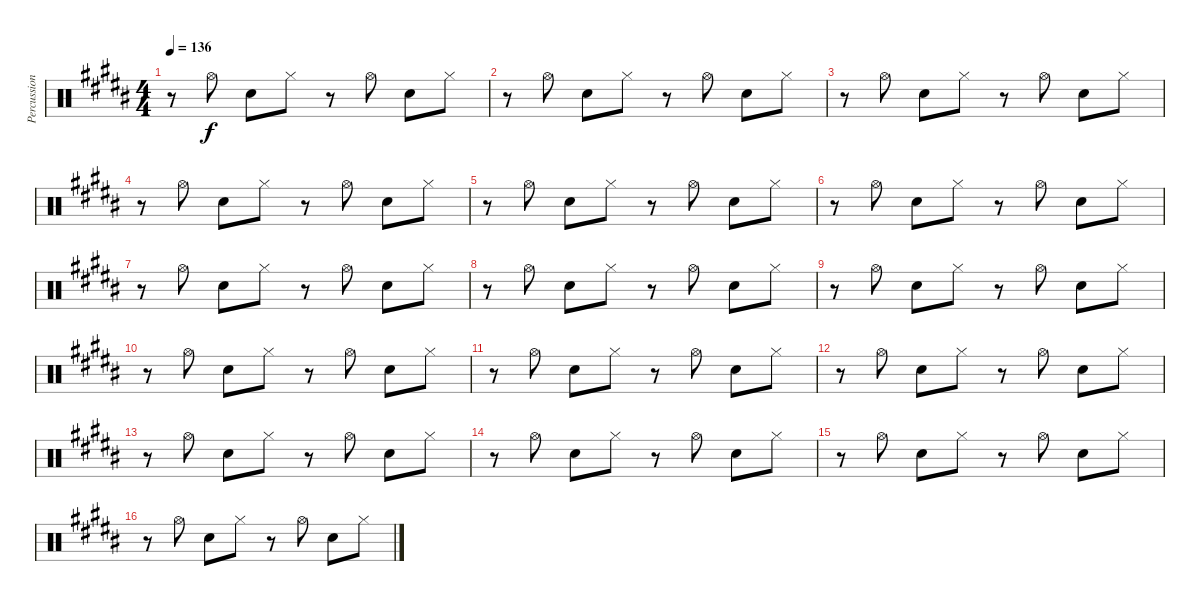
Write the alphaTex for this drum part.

\track ("Percussion" "Percussion") {instrument percussion}
\staff {score}
\articulation defaults
\ts (4 4)
\tempo 136
\clef neutral
\ks g#minor
r.8{dy f} "Hi-Hat (open)".8 "Snare (hit) 2".8 "Hi-Hat (closed)".8 r.8 "Hi-Hat (open)".8 "Snare (hit) 2".8 "Hi-Hat (closed)".8 |
r.8 "Hi-Hat (open)".8 "Snare (hit) 2".8 "Hi-Hat (closed)".8 r.8 "Hi-Hat (open)".8 "Snare (hit) 2".8 "Hi-Hat (closed)".8 |
r.8 "Hi-Hat (open)".8 "Snare (hit) 2".8 "Hi-Hat (closed)".8 r.8 "Hi-Hat (open)".8 "Snare (hit) 2".8 "Hi-Hat (closed)".8 |
r.8 "Hi-Hat (open)".8 "Snare (hit) 2".8 "Hi-Hat (closed)".8 r.8 "Hi-Hat (open)".8 "Snare (hit) 2".8 "Hi-Hat (closed)".8 |
r.8 "Hi-Hat (open)".8 "Snare (hit) 2".8 "Hi-Hat (closed)".8 r.8 "Hi-Hat (open)".8 "Snare (hit) 2".8 "Hi-Hat (closed)".8 |
r.8 "Hi-Hat (open)".8 "Snare (hit) 2".8 "Hi-Hat (closed)".8 r.8 "Hi-Hat (open)".8 "Snare (hit) 2".8 "Hi-Hat (closed)".8 |
r.8 "Hi-Hat (open)".8 "Snare (hit) 2".8 "Hi-Hat (closed)".8 r.8 "Hi-Hat (open)".8 "Snare (hit) 2".8 "Hi-Hat (closed)".8 |
r.8 "Hi-Hat (open)".8 "Snare (hit) 2".8 "Hi-Hat (closed)".8 r.8 "Hi-Hat (open)".8 "Snare (hit) 2".8 "Hi-Hat (closed)".8 |
r.8 "Hi-Hat (open)".8 "Snare (hit) 2".8 "Hi-Hat (closed)".8 r.8 "Hi-Hat (open)".8 "Snare (hit) 2".8 "Hi-Hat (closed)".8 |
r.8 "Hi-Hat (open)".8 "Snare (hit) 2".8 "Hi-Hat (closed)".8 r.8 "Hi-Hat (open)".8 "Snare (hit) 2".8 "Hi-Hat (closed)".8 |
r.8 "Hi-Hat (open)".8 "Snare (hit) 2".8 "Hi-Hat (closed)".8 r.8 "Hi-Hat (open)".8 "Snare (hit) 2".8 "Hi-Hat (closed)".8 |
r.8 "Hi-Hat (open)".8 "Snare (hit) 2".8 "Hi-Hat (closed)".8 r.8 "Hi-Hat (open)".8 "Snare (hit) 2".8 "Hi-Hat (closed)".8 |
r.8 "Hi-Hat (open)".8 "Snare (hit) 2".8 "Hi-Hat (closed)".8 r.8 "Hi-Hat (open)".8 "Snare (hit) 2".8 "Hi-Hat (closed)".8 |
r.8 "Hi-Hat (open)".8 "Snare (hit) 2".8 "Hi-Hat (closed)".8 r.8 "Hi-Hat (open)".8 "Snare (hit) 2".8 "Hi-Hat (closed)".8 |
r.8 "Hi-Hat (open)".8 "Snare (hit) 2".8 "Hi-Hat (closed)".8 r.8 "Hi-Hat (open)".8 "Snare (hit) 2".8 "Hi-Hat (closed)".8 |
r.8 "Hi-Hat (open)".8 "Snare (hit) 2".8 "Hi-Hat (closed)".8 r.8 "Hi-Hat (open)".8 "Snare (hit) 2".8 "Hi-Hat (closed)".8
